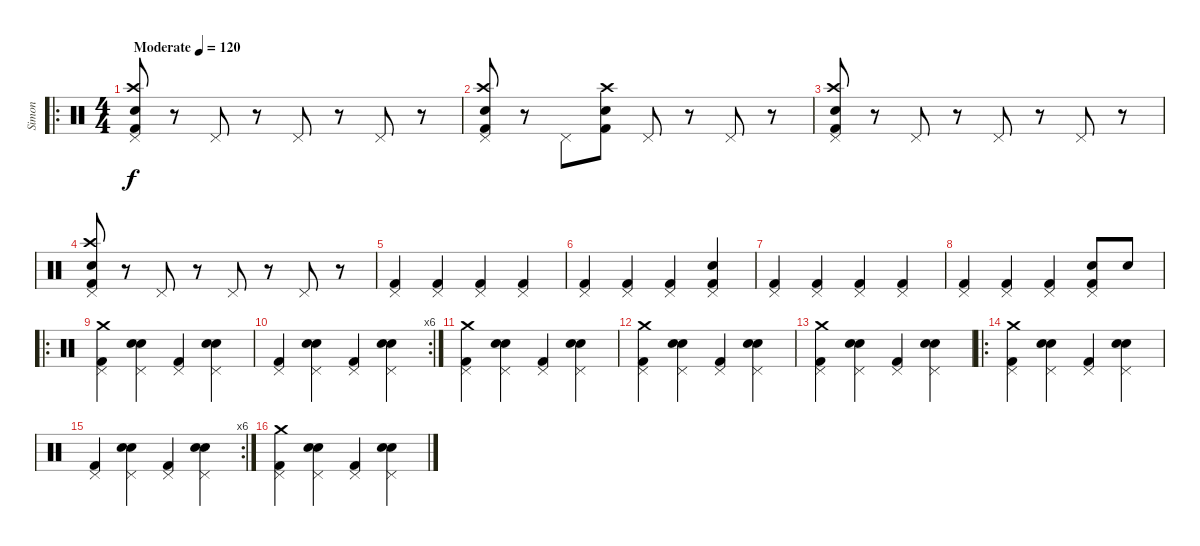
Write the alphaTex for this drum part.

\track ("Simon" "Simon") {instrument percussion}
\staff {score}
\articulation defaults
\ro
\ts (4 4)
\tempo (120 "Moderate")
\clef neutral
\ks c
("Kick (hit) 2" "Snare (hit) 2" "Crash high (hit)" "Pedal Hi-Hat (hit)").8{dy f} r.8 "Pedal Hi-Hat (hit)".8 r.8 "Pedal Hi-Hat (hit)".8 r.8 "Pedal Hi-Hat (hit)".8 r.8 |
("Snare (hit) 2" "Kick (hit) 2" "Crash high (hit)" "Pedal Hi-Hat (hit)").8 r.8 "Pedal Hi-Hat (hit)".8 ("Kick (hit) 2" "Snare (hit) 2" "Crash high (hit)").8 "Pedal Hi-Hat (hit)".8 r.8 "Pedal Hi-Hat (hit)".8 r.8 |
("Kick (hit) 2" "Snare (hit) 2" "Crash high (hit)" "Pedal Hi-Hat (hit)").8 r.8 "Pedal Hi-Hat (hit)".8 r.8 "Pedal Hi-Hat (hit)".8 r.8 "Pedal Hi-Hat (hit)".8 r.8 |
("Snare (hit) 2" "Kick (hit) 2" "Crash high (hit)" "Pedal Hi-Hat (hit)").8 r.8 "Pedal Hi-Hat (hit)".8 r.8 "Pedal Hi-Hat (hit)".8 r.8 "Pedal Hi-Hat (hit)".8 r.8 |
("Kick (hit) 2" "Pedal Hi-Hat (hit)").4 ("Kick (hit) 2" "Pedal Hi-Hat (hit)").4 ("Kick (hit) 2" "Pedal Hi-Hat (hit)").4 ("Kick (hit) 2" "Pedal Hi-Hat (hit)").4 |
("Kick (hit) 2" "Pedal Hi-Hat (hit)").4 ("Kick (hit) 2" "Pedal Hi-Hat (hit)").4 ("Kick (hit) 2" "Pedal Hi-Hat (hit)").4 ("Kick (hit) 2" "Electric Snare (hit)" "Pedal Hi-Hat (hit)").4 |
("Kick (hit) 2" "Pedal Hi-Hat (hit)").4 ("Kick (hit) 2" "Pedal Hi-Hat (hit)").4 ("Kick (hit) 2" "Pedal Hi-Hat (hit)").4 ("Kick (hit) 2" "Pedal Hi-Hat (hit)").4 |
("Kick (hit) 2" "Pedal Hi-Hat (hit)").4 ("Kick (hit) 2" "Pedal Hi-Hat (hit)").4 ("Kick (hit) 2" "Pedal Hi-Hat (hit)").4 ("Kick (hit) 2" "Electric Snare (hit)" "Pedal Hi-Hat (hit)").8 "Electric Snare (hit)".8 |
\ro
("Kick (hit) 2" "Crash medium (hit)" "Pedal Hi-Hat (hit)").4 ("Snare (hit) 2" "Electric Snare (hit)" "Pedal Hi-Hat (hit)").4 ("Kick (hit) 2" "Pedal Hi-Hat (hit)").4 ("Snare (hit) 2" "Electric Snare (hit)" "Pedal Hi-Hat (hit)").4 |
\rc 6
("Kick (hit) 2" "Pedal Hi-Hat (hit)").4 ("Snare (hit) 2" "Electric Snare (hit)" "Pedal Hi-Hat (hit)").4 ("Kick (hit) 2" "Pedal Hi-Hat (hit)").4 ("Snare (hit) 2" "Electric Snare (hit)" "Pedal Hi-Hat (hit)").4 |
("Kick (hit) 2" "Crash medium (hit)" "Pedal Hi-Hat (hit)").4 ("Snare (hit) 2" "Electric Snare (hit)" "Pedal Hi-Hat (hit)").4 ("Kick (hit) 2" "Pedal Hi-Hat (hit)").4 ("Snare (hit) 2" "Electric Snare (hit)" "Pedal Hi-Hat (hit)").4 |
("Kick (hit) 2" "Crash medium (hit)" "Pedal Hi-Hat (hit)").4 ("Snare (hit) 2" "Electric Snare (hit)" "Pedal Hi-Hat (hit)").4 ("Kick (hit) 2" "Pedal Hi-Hat (hit)").4 ("Snare (hit) 2" "Electric Snare (hit)" "Pedal Hi-Hat (hit)").4 |
("Kick (hit) 2" "Crash medium (hit)" "Pedal Hi-Hat (hit)").4 ("Snare (hit) 2" "Electric Snare (hit)" "Pedal Hi-Hat (hit)").4 ("Kick (hit) 2" "Pedal Hi-Hat (hit)").4 ("Snare (hit) 2" "Electric Snare (hit)" "Pedal Hi-Hat (hit)").4 |
\ro
("Kick (hit) 2" "Crash medium (hit)" "Pedal Hi-Hat (hit)").4 ("Snare (hit) 2" "Electric Snare (hit)" "Pedal Hi-Hat (hit)").4 ("Kick (hit) 2" "Pedal Hi-Hat (hit)").4 ("Snare (hit) 2" "Electric Snare (hit)" "Pedal Hi-Hat (hit)").4 |
\rc 6
("Kick (hit) 2" "Pedal Hi-Hat (hit)").4 ("Snare (hit) 2" "Electric Snare (hit)" "Pedal Hi-Hat (hit)").4 ("Kick (hit) 2" "Pedal Hi-Hat (hit)").4 ("Snare (hit) 2" "Electric Snare (hit)" "Pedal Hi-Hat (hit)").4 |
("Kick (hit) 2" "Crash medium (hit)" "Pedal Hi-Hat (hit)").4 ("Snare (hit) 2" "Electric Snare (hit)" "Pedal Hi-Hat (hit)").4 ("Kick (hit) 2" "Pedal Hi-Hat (hit)").4 ("Snare (hit) 2" "Electric Snare (hit)" "Pedal Hi-Hat (hit)").4
